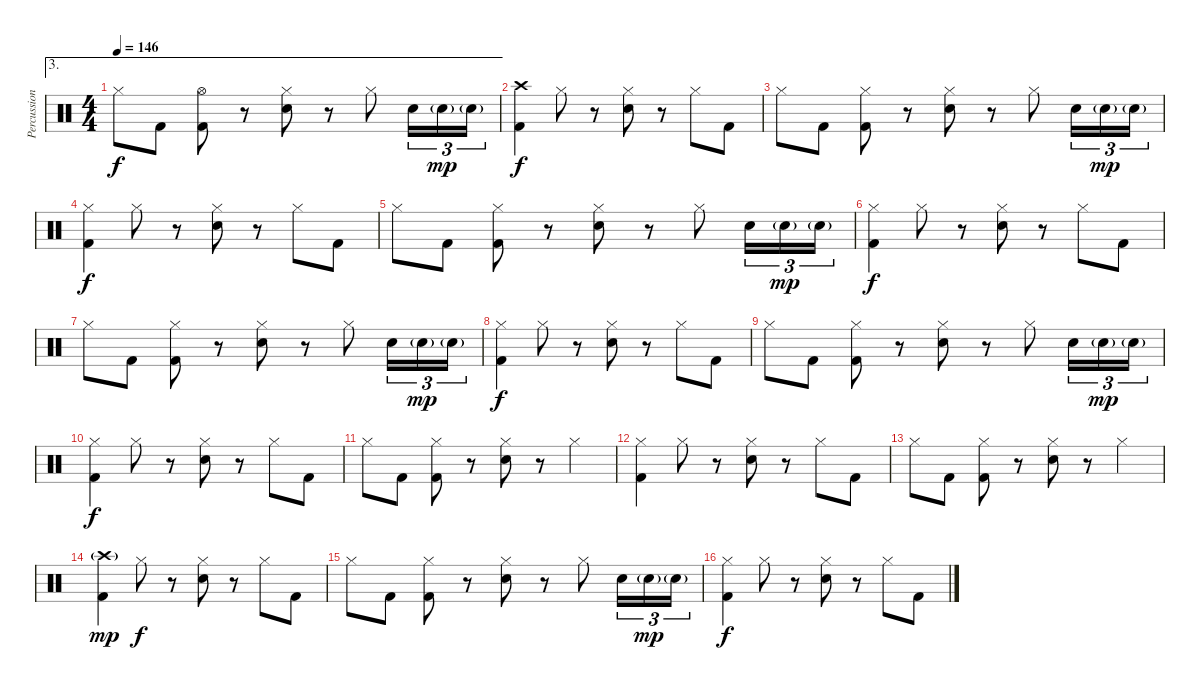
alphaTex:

\track ("Percussion" "Percussion") {instrument percussion}
\staff {score}
\articulation defaults
\ae 3
\ts (4 4)
\tempo 146
\clef neutral
\ks c "Hi-Hat (closed)".8{dy f} "Kick (hit) 2".8
("Hi-Hat (open)" "Kick (hit) 2").8 r.8 ("Hi-Hat (closed)" "Electric Snare (hit)").8 r.8 "Hi-Hat (closed)".8 "Electric Snare (hit)".16{tu (3 2)} "Electric Snare (hit)"{g}.16{tu (3 2) dy mp} "Electric Snare (hit)"{g}.16{tu (3 2)} |
("Crash high (hit)" "Kick (hit) 2").4{dy f} "Hi-Hat (closed)".8 r.8 ("Hi-Hat (closed)" "Electric Snare (hit)").8 r.8 "Hi-Hat (closed)".8 "Kick (hit) 2".8 |
"Hi-Hat (closed)".8 "Kick (hit) 2".8 ("Hi-Hat (closed)" "Kick (hit) 2").8 r.8 ("Hi-Hat (closed)" "Electric Snare (hit)").8 r.8 "Hi-Hat (closed)".8 "Electric Snare (hit)".16{tu (3 2)} "Electric Snare (hit)"{g}.16{tu (3 2) dy mp} "Electric Snare (hit)"{g}.16{tu (3 2)} |
("Hi-Hat (closed)" "Kick (hit) 2").4{dy f} "Hi-Hat (closed)".8 r.8 ("Hi-Hat (closed)" "Electric Snare (hit)").8 r.8 "Hi-Hat (closed)".8 "Kick (hit) 2".8 |
"Hi-Hat (closed)".8 "Kick (hit) 2".8 ("Hi-Hat (closed)" "Kick (hit) 2").8 r.8 ("Hi-Hat (closed)" "Electric Snare (hit)").8 r.8 "Hi-Hat (closed)".8 "Electric Snare (hit)".16{tu (3 2)} "Electric Snare (hit)"{g}.16{tu (3 2) dy mp} "Electric Snare (hit)"{g}.16{tu (3 2)} |
("Hi-Hat (closed)" "Kick (hit) 2").4{dy f} "Hi-Hat (closed)".8 r.8 ("Hi-Hat (closed)" "Electric Snare (hit)").8 r.8 "Hi-Hat (closed)".8 "Kick (hit) 2".8 |
"Hi-Hat (closed)".8 "Kick (hit) 2".8 ("Hi-Hat (closed)" "Kick (hit) 2").8 r.8 ("Hi-Hat (closed)" "Electric Snare (hit)").8 r.8 "Hi-Hat (closed)".8 "Electric Snare (hit)".16{tu (3 2)} "Electric Snare (hit)"{g}.16{tu (3 2) dy mp} "Electric Snare (hit)"{g}.16{tu (3 2)} |
("Hi-Hat (closed)" "Kick (hit) 2").4{dy f} "Hi-Hat (closed)".8 r.8 ("Hi-Hat (closed)" "Electric Snare (hit)").8 r.8 "Hi-Hat (closed)".8 "Kick (hit) 2".8 |
"Hi-Hat (closed)".8 "Kick (hit) 2".8 ("Hi-Hat (closed)" "Kick (hit) 2").8 r.8 ("Hi-Hat (closed)" "Electric Snare (hit)").8 r.8 "Hi-Hat (closed)".8 "Electric Snare (hit)".16{tu (3 2)} "Electric Snare (hit)"{g}.16{tu (3 2) dy mp} "Electric Snare (hit)"{g}.16{tu (3 2)} |
("Hi-Hat (closed)" "Kick (hit) 2").4{dy f} "Hi-Hat (closed)".8 r.8 ("Hi-Hat (closed)" "Electric Snare (hit)").8 r.8 "Hi-Hat (closed)".8 "Kick (hit) 2".8 |
"Hi-Hat (closed)".8 "Kick (hit) 2".8 ("Hi-Hat (closed)" "Kick (hit) 2").8 r.8 ("Hi-Hat (closed)" "Electric Snare (hit)").8 r.8 "Hi-Hat (closed)".4 |
("Hi-Hat (closed)" "Kick (hit) 2").4 "Hi-Hat (closed)".8 r.8 ("Hi-Hat (closed)" "Electric Snare (hit)").8 r.8 "Hi-Hat (closed)".8 "Kick (hit) 2".8 |
"Hi-Hat (closed)".8 "Kick (hit) 2".8 ("Hi-Hat (closed)" "Kick (hit) 2").8 r.8 ("Hi-Hat (closed)" "Electric Snare (hit)").8 r.8 "Hi-Hat (closed)".4 |
("Crash high (hit)"{g} "Kick (hit) 2").4{dy mp} "Hi-Hat (closed)".8{dy f} r.8 ("Hi-Hat (closed)" "Electric Snare (hit)").8 r.8 "Hi-Hat (closed)".8 "Kick (hit) 2".8 |
"Hi-Hat (closed)".8 "Kick (hit) 2".8 ("Hi-Hat (closed)" "Kick (hit) 2").8 r.8 ("Hi-Hat (closed)" "Electric Snare (hit)").8 r.8 "Hi-Hat (closed)".8 "Electric Snare (hit)".16{tu (3 2)} "Electric Snare (hit)"{g}.16{tu (3 2) dy mp} "Electric Snare (hit)"{g}.16{tu (3 2)} |
("Hi-Hat (closed)" "Kick (hit) 2").4{dy f} "Hi-Hat (closed)".8 r.8 ("Hi-Hat (closed)" "Electric Snare (hit)").8 r.8 "Hi-Hat (closed)".8 "Kick (hit) 2".8
